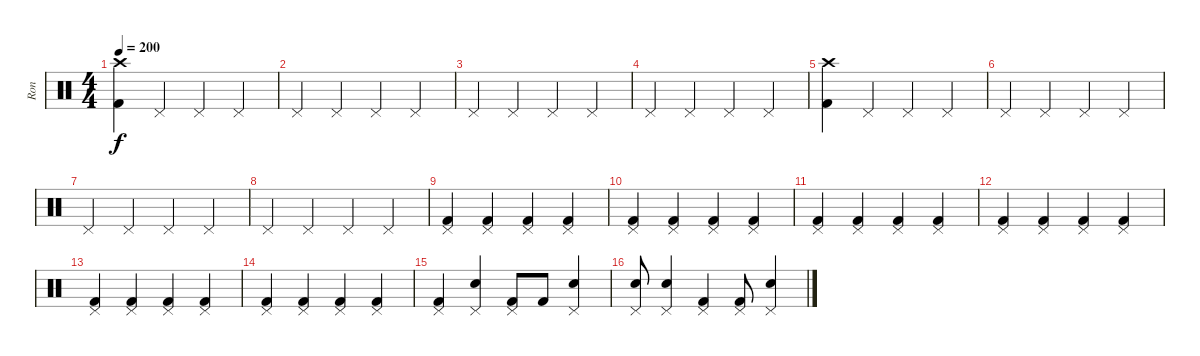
\track ("Ron" "Ron") {instrument percussion}
\staff {score}
\articulation defaults
\ts (4 4)
\tempo 200
\clef neutral
\ks c
("Crash high (hit)" "Kick (hit) 2").4{dy f} "Pedal Hi-Hat (hit)".4 "Pedal Hi-Hat (hit)".4 "Pedal Hi-Hat (hit)".4 |
"Pedal Hi-Hat (hit)".4 "Pedal Hi-Hat (hit)".4 "Pedal Hi-Hat (hit)".4 "Pedal Hi-Hat (hit)".4 |
"Pedal Hi-Hat (hit)".4 "Pedal Hi-Hat (hit)".4 "Pedal Hi-Hat (hit)".4 "Pedal Hi-Hat (hit)".4 |
"Pedal Hi-Hat (hit)".4 "Pedal Hi-Hat (hit)".4 "Pedal Hi-Hat (hit)".4 "Pedal Hi-Hat (hit)".4 |
("Crash high (hit)" "Kick (hit) 2").4 "Pedal Hi-Hat (hit)".4 "Pedal Hi-Hat (hit)".4 "Pedal Hi-Hat (hit)".4 |
"Pedal Hi-Hat (hit)".4 "Pedal Hi-Hat (hit)".4 "Pedal Hi-Hat (hit)".4 "Pedal Hi-Hat (hit)".4 |
"Pedal Hi-Hat (hit)".4 "Pedal Hi-Hat (hit)".4 "Pedal Hi-Hat (hit)".4 "Pedal Hi-Hat (hit)".4 |
"Pedal Hi-Hat (hit)".4 "Pedal Hi-Hat (hit)".4 "Pedal Hi-Hat (hit)".4 "Pedal Hi-Hat (hit)".4 |
("Pedal Hi-Hat (hit)" "Kick (hit) 2").4 ("Pedal Hi-Hat (hit)" "Kick (hit) 2").4 ("Pedal Hi-Hat (hit)" "Kick (hit) 2").4 ("Pedal Hi-Hat (hit)" "Kick (hit) 2").4 |
("Pedal Hi-Hat (hit)" "Kick (hit) 2").4 ("Pedal Hi-Hat (hit)" "Kick (hit) 2").4 ("Pedal Hi-Hat (hit)" "Kick (hit) 2").4 ("Pedal Hi-Hat (hit)" "Kick (hit) 2").4 |
("Pedal Hi-Hat (hit)" "Kick (hit) 2").4 ("Pedal Hi-Hat (hit)" "Kick (hit) 2").4 ("Pedal Hi-Hat (hit)" "Kick (hit) 2").4 ("Pedal Hi-Hat (hit)" "Kick (hit) 2").4 |
("Pedal Hi-Hat (hit)" "Kick (hit) 2").4 ("Pedal Hi-Hat (hit)" "Kick (hit) 2").4 ("Pedal Hi-Hat (hit)" "Kick (hit) 2").4 ("Pedal Hi-Hat (hit)" "Kick (hit) 2").4 |
("Pedal Hi-Hat (hit)" "Kick (hit) 2").4 ("Pedal Hi-Hat (hit)" "Kick (hit) 2").4 ("Pedal Hi-Hat (hit)" "Kick (hit) 2").4 ("Pedal Hi-Hat (hit)" "Kick (hit) 2").4 |
("Pedal Hi-Hat (hit)" "Kick (hit) 2").4 ("Pedal Hi-Hat (hit)" "Kick (hit) 2").4 ("Pedal Hi-Hat (hit)" "Kick (hit) 2").4 ("Pedal Hi-Hat (hit)" "Kick (hit) 2").4 |
("Pedal Hi-Hat (hit)" "Kick (hit) 2").4 ("Electric Snare (hit)" "Pedal Hi-Hat (hit)").4 ("Pedal Hi-Hat (hit)" "Kick (hit) 2").8 "Kick (hit) 2".8 ("Electric Snare (hit)" "Pedal Hi-Hat (hit)").4 |
("Electric Snare (hit)" "Pedal Hi-Hat (hit)").8 ("Electric Snare (hit)" "Pedal Hi-Hat (hit)").4 ("Pedal Hi-Hat (hit)" "Kick (hit) 2").4 ("Pedal Hi-Hat (hit)" "Kick (hit) 2").8 ("Electric Snare (hit)" "Pedal Hi-Hat (hit)").4
